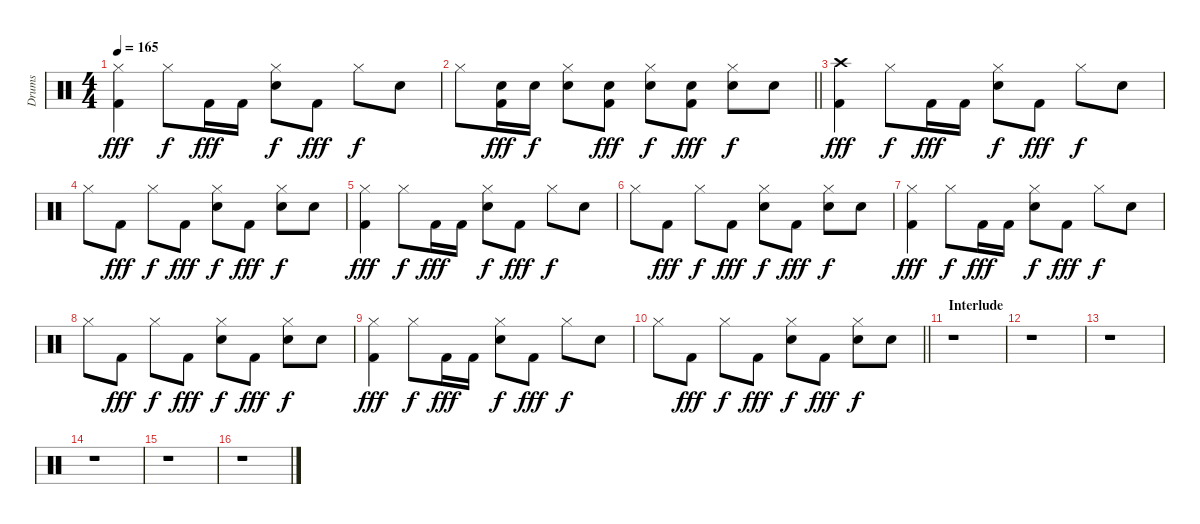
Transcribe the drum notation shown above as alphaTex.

\track ("Drums" "Drums") {instrument percussion}
\staff {score}
\articulation defaults
\ts (4 4)
\tempo 165
\clef neutral
\ks c
("Hi-Hat (closed)" "Kick (hit) 2").4{dy fff} "Hi-Hat (closed)".8{dy f} "Kick (hit) 2".16{dy fff} "Kick (hit) 2".16 ("Hi-Hat (closed)" "Snare (hit) 2").8{dy f} "Kick (hit) 2".8{dy fff} "Hi-Hat (closed)".8{dy f} "Snare (hit) 2".8 |
\barLineRight lightlight "Hi-Hat (closed)".8
("Snare (hit) 2" "Kick (hit) 2").16{dy fff} "Snare (hit) 2".16{dy f} ("Hi-Hat (closed)" "Snare (hit) 2").8 ("Snare (hit) 2" "Kick (hit) 2").8{dy fff} ("Hi-Hat (closed)" "Snare (hit) 2").8{dy f} ("Snare (hit) 2" "Kick (hit) 2").8{dy fff} ("Hi-Hat (closed)" "Snare (hit) 2").8{dy f} "Snare (hit) 2".8 |
("Crash high (hit)" "Kick (hit) 2").4{dy fff} "Hi-Hat (closed)".8{dy f} "Kick (hit) 2".16{dy fff} "Kick (hit) 2".16 ("Hi-Hat (closed)" "Snare (hit) 2").8{dy f} "Kick (hit) 2".8{dy fff} "Hi-Hat (closed)".8{dy f} "Snare (hit) 2".8 |
"Hi-Hat (closed)".8 "Kick (hit) 2".8{dy fff} "Hi-Hat (closed)".8{dy f} "Kick (hit) 2".8{dy fff} ("Hi-Hat (closed)" "Snare (hit) 2").8{dy f} "Kick (hit) 2".8{dy fff} ("Hi-Hat (closed)" "Snare (hit) 2").8{dy f} "Snare (hit) 2".8 |
("Hi-Hat (closed)" "Kick (hit) 2").4{dy fff} "Hi-Hat (closed)".8{dy f} "Kick (hit) 2".16{dy fff} "Kick (hit) 2".16 ("Hi-Hat (closed)" "Snare (hit) 2").8{dy f} "Kick (hit) 2".8{dy fff} "Hi-Hat (closed)".8{dy f} "Snare (hit) 2".8 |
"Hi-Hat (closed)".8 "Kick (hit) 2".8{dy fff} "Hi-Hat (closed)".8{dy f} "Kick (hit) 2".8{dy fff} ("Hi-Hat (closed)" "Snare (hit) 2").8{dy f} "Kick (hit) 2".8{dy fff} ("Hi-Hat (closed)" "Snare (hit) 2").8{dy f} "Snare (hit) 2".8 |
("Hi-Hat (closed)" "Kick (hit) 2").4{dy fff} "Hi-Hat (closed)".8{dy f} "Kick (hit) 2".16{dy fff} "Kick (hit) 2".16 ("Hi-Hat (closed)" "Snare (hit) 2").8{dy f} "Kick (hit) 2".8{dy fff} "Hi-Hat (closed)".8{dy f} "Snare (hit) 2".8 |
"Hi-Hat (closed)".8 "Kick (hit) 2".8{dy fff} "Hi-Hat (closed)".8{dy f} "Kick (hit) 2".8{dy fff} ("Hi-Hat (closed)" "Snare (hit) 2").8{dy f} "Kick (hit) 2".8{dy fff} ("Hi-Hat (closed)" "Snare (hit) 2").8{dy f} "Snare (hit) 2".8 |
("Hi-Hat (closed)" "Kick (hit) 2").4{dy fff} "Hi-Hat (closed)".8{dy f} "Kick (hit) 2".16{dy fff} "Kick (hit) 2".16 ("Hi-Hat (closed)" "Snare (hit) 2").8{dy f} "Kick (hit) 2".8{dy fff} "Hi-Hat (closed)".8{dy f} "Snare (hit) 2".8 |
\barLineRight lightlight "Hi-Hat (closed)".8 "Kick (hit) 2".8{dy fff} "Hi-Hat (closed)".8{dy f} "Kick (hit) 2".8{dy fff}
("Hi-Hat (closed)" "Snare (hit) 2").8{dy f} "Kick (hit) 2".8{dy fff} ("Hi-Hat (closed)" "Snare (hit) 2").8{dy f} "Snare (hit) 2".8 |
\section ("" "Interlude")
r.1 |
r.1 |
r.1 |
r.1 |
r.1 |
r.1
